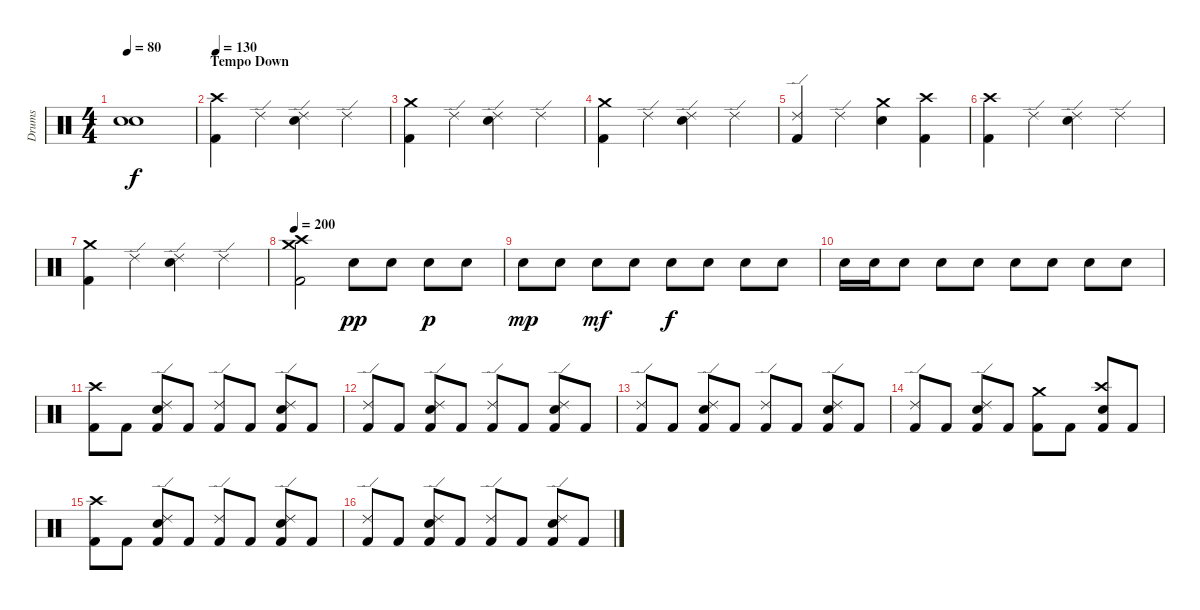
\track ("Drums" "Drums") {instrument percussion}
\staff {score}
\articulation defaults
\ts (4 4)
\tempo 80
\clef neutral
\ks c
("Snare (hit)"{t} "Snare (hit)"{t}).1{dy f} |
\section ("" "Tempo Down")
\tempo 130
("Kick (hit) 2" "Crash high (hit)").4 "Ride (edge) 2".4 ("Electric Snare (hit)" "Ride (edge) 2").4 "Ride (edge) 2".4 |
("Kick (hit) 2" "Crash medium (hit)").4 "Ride (edge) 2".4 ("Electric Snare (hit)" "Ride (edge) 2").4 "Ride (edge) 2".4 |
("Kick (hit) 2" "Crash medium (hit)").4 "Ride (edge) 2".4 ("Electric Snare (hit)" "Ride (edge) 2").4 "Ride (edge) 2".4 |
("Kick (hit) 2" "Ride (edge) 2").4 "Ride (edge) 2".4 ("Electric Snare (hit)" "Crash medium (hit)").4 ("Kick (hit) 2" "Crash high (hit)").4 |
("Kick (hit) 2" "Crash high (hit)").4 "Ride (edge) 2".4 ("Electric Snare (hit)" "Ride (edge) 2").4 "Ride (edge) 2".4 |
("Kick (hit) 2" "Crash medium (hit)").4 "Ride (edge) 2".4 ("Electric Snare (hit)" "Ride (edge) 2").4 "Ride (edge) 2".4 |
\tempo 200
("Kick (hit) 2" "Crash medium (hit)" "Crash high (hit)").2 "Electric Snare (hit)".8{dy pp} "Electric Snare (hit)".8 "Electric Snare (hit)".8{dy p} "Electric Snare (hit)".8 |
"Electric Snare (hit)".8{dy mp} "Electric Snare (hit)".8 "Electric Snare (hit)".8{dy mf} "Electric Snare (hit)".8 "Electric Snare (hit)".8{dy f} "Electric Snare (hit)".8 "Electric Snare (hit)".8 "Electric Snare (hit)".8 |
"Electric Snare (hit)".16 "Electric Snare (hit)".16 "Electric Snare (hit)".8 "Electric Snare (hit)".8 "Electric Snare (hit)".8 "Electric Snare (hit)".8 "Electric Snare (hit)".8 "Electric Snare (hit)".8 "Electric Snare (hit)".8 |
\section ("" "")
("Kick (hit) 2" "Crash high (hit)").8 "Kick (hit) 2".8 ("Kick (hit) 2" "Electric Snare (hit)" "Ride (edge) 2").8 "Kick (hit) 2".8 ("Kick (hit) 2" "Ride (edge) 2").8 "Kick (hit) 2".8 ("Kick (hit) 2" "Electric Snare (hit)" "Ride (edge) 2").8 "Kick (hit) 2".8 |
("Kick (hit) 2" "Ride (edge) 2").8 "Kick (hit) 2".8 ("Kick (hit) 2" "Electric Snare (hit)" "Ride (edge) 2").8 "Kick (hit) 2".8 ("Kick (hit) 2" "Ride (edge) 2").8 "Kick (hit) 2".8 ("Kick (hit) 2" "Electric Snare (hit)" "Ride (edge) 2").8 "Kick (hit) 2".8 |
("Kick (hit) 2" "Ride (edge) 2").8 "Kick (hit) 2".8 ("Kick (hit) 2" "Electric Snare (hit)" "Ride (edge) 2").8 "Kick (hit) 2".8 ("Kick (hit) 2" "Ride (edge) 2").8 "Kick (hit) 2".8 ("Kick (hit) 2" "Electric Snare (hit)" "Ride (edge) 2").8 "Kick (hit) 2".8 |
("Kick (hit) 2" "Ride (edge) 2").8 "Kick (hit) 2".8 ("Kick (hit) 2" "Electric Snare (hit)" "Ride (edge) 2").8 "Kick (hit) 2".8 ("Kick (hit) 2" "Crash medium (hit)").8 "Kick (hit) 2".8 ("Kick (hit) 2" "Electric Snare (hit)" "Crash high (hit)").8 "Kick (hit) 2".8 |
("Kick (hit) 2" "Crash high (hit)").8 "Kick (hit) 2".8 ("Kick (hit) 2" "Electric Snare (hit)" "Ride (edge) 2").8 "Kick (hit) 2".8 ("Kick (hit) 2" "Ride (edge) 2").8 "Kick (hit) 2".8 ("Kick (hit) 2" "Electric Snare (hit)" "Ride (edge) 2").8 "Kick (hit) 2".8 |
("Kick (hit) 2" "Ride (edge) 2").8 "Kick (hit) 2".8 ("Kick (hit) 2" "Electric Snare (hit)" "Ride (edge) 2").8 "Kick (hit) 2".8 ("Kick (hit) 2" "Ride (edge) 2").8 "Kick (hit) 2".8 ("Kick (hit) 2" "Electric Snare (hit)" "Ride (edge) 2").8 "Kick (hit) 2".8
